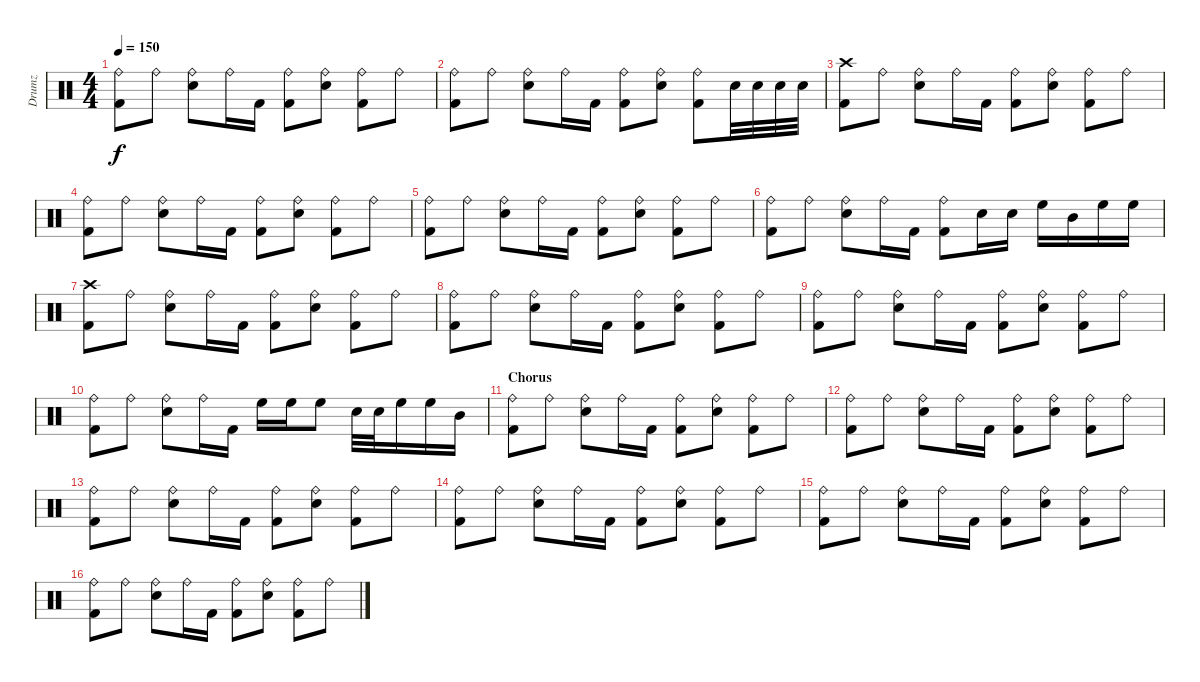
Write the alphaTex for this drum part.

\track ("Drumz" "Drumz") {instrument percussion}
\staff {score}
\articulation defaults
\ts (4 4)
\tempo 150
\clef neutral
\ks c
("Ride (bell)" "Kick (hit) 2").8{dy f} "Ride (bell)".8 ("Ride (bell)" "Snare (hit) 2").8 "Ride (bell)".16 "Kick (hit) 2".16 ("Ride (bell)" "Kick (hit) 2").8 ("Ride (bell)" "Snare (hit) 2").8 ("Ride (bell)" "Kick (hit) 2").8 "Ride (bell)".8 |
("Ride (bell)" "Kick (hit) 2").8 "Ride (bell)".8 ("Ride (bell)" "Snare (hit) 2").8 "Ride (bell)".16 "Kick (hit) 2".16 ("Ride (bell)" "Kick (hit) 2").8 ("Ride (bell)" "Snare (hit) 2").8 ("Ride (bell)" "Kick (hit) 2").8 "Snare (hit) 2".32 "Snare (hit) 2".32 "Snare (hit) 2".32 "Snare (hit) 2".32 |
("Crash high (hit)" "Kick (hit) 2").8 "Ride (bell)".8 ("Ride (bell)" "Snare (hit) 2").8 "Ride (bell)".16 "Kick (hit) 2".16 ("Ride (bell)" "Kick (hit) 2").8 ("Ride (bell)" "Snare (hit) 2").8 ("Ride (bell)" "Kick (hit) 2").8 "Ride (bell)".8 |
("Ride (bell)" "Kick (hit) 2").8 "Ride (bell)".8 ("Ride (bell)" "Snare (hit) 2").8 "Ride (bell)".16 "Kick (hit) 2".16 ("Ride (bell)" "Kick (hit) 2").8 ("Ride (bell)" "Snare (hit) 2").8 ("Ride (bell)" "Kick (hit) 2").8 "Ride (bell)".8 |
("Ride (bell)" "Kick (hit) 2").8 "Ride (bell)".8 ("Ride (bell)" "Snare (hit) 2").8 "Ride (bell)".16 "Kick (hit) 2".16 ("Ride (bell)" "Kick (hit) 2").8 ("Ride (bell)" "Snare (hit) 2").8 ("Ride (bell)" "Kick (hit) 2").8 "Ride (bell)".8 |
("Ride (bell)" "Kick (hit) 2").8 "Ride (bell)".8 ("Ride (bell)" "Snare (hit) 2").8 "Ride (bell)".16 "Kick (hit) 2".16 ("Ride (bell)" "Kick (hit) 2").8 "Snare (hit) 2".16 "Snare (hit) 2".16 "High Floor Tom (hit)".16 "Mid Tom (hit)".16 "High Floor Tom (hit)".16 "High Floor Tom (hit)".16 |
("Crash high (hit)" "Kick (hit) 2").8 "Ride (bell)".8 ("Ride (bell)" "Snare (hit) 2").8 "Ride (bell)".16 "Kick (hit) 2".16 ("Ride (bell)" "Kick (hit) 2").8 ("Ride (bell)" "Snare (hit) 2").8 ("Ride (bell)" "Kick (hit) 2").8 "Ride (bell)".8 |
("Ride (bell)" "Kick (hit) 2").8 "Ride (bell)".8 ("Ride (bell)" "Snare (hit) 2").8 "Ride (bell)".16 "Kick (hit) 2".16 ("Ride (bell)" "Kick (hit) 2").8 ("Ride (bell)" "Snare (hit) 2").8 ("Ride (bell)" "Kick (hit) 2").8 "Ride (bell)".8 |
("Ride (bell)" "Kick (hit) 2").8 "Ride (bell)".8 ("Ride (bell)" "Snare (hit) 2").8 "Ride (bell)".16 "Kick (hit) 2".16 ("Ride (bell)" "Kick (hit) 2").8 ("Ride (bell)" "Snare (hit) 2").8 ("Ride (bell)" "Kick (hit) 2").8 "Ride (bell)".8 |
("Ride (bell)" "Kick (hit) 2").8 "Ride (bell)".8 ("Ride (bell)" "Snare (hit) 2").8 "Ride (bell)".16 "Kick (hit) 2".16 "High Floor Tom (hit)".16 "High Floor Tom (hit)".16 "High Floor Tom (hit)".8 "Snare (hit) 2".32 "Snare (hit) 2".32 "High Floor Tom (hit)".16 "High Floor Tom (hit)".16 "Mid Tom (hit)".16 |
\section ("" "Chorus")
("Ride (bell)" "Kick (hit) 2").8 "Ride (bell)".8 ("Ride (bell)" "Snare (hit) 2").8 "Ride (bell)".16 "Kick (hit) 2".16 ("Ride (bell)" "Kick (hit) 2").8 ("Ride (bell)" "Snare (hit) 2").8 ("Ride (bell)" "Kick (hit) 2").8 "Ride (bell)".8 |
("Ride (bell)" "Kick (hit) 2").8 "Ride (bell)".8 ("Ride (bell)" "Snare (hit) 2").8 "Ride (bell)".16 "Kick (hit) 2".16 ("Ride (bell)" "Kick (hit) 2").8 ("Ride (bell)" "Snare (hit) 2").8 ("Ride (bell)" "Kick (hit) 2").8 "Ride (bell)".8 |
("Ride (bell)" "Kick (hit) 2").8 "Ride (bell)".8 ("Ride (bell)" "Snare (hit) 2").8 "Ride (bell)".16 "Kick (hit) 2".16 ("Ride (bell)" "Kick (hit) 2").8 ("Ride (bell)" "Snare (hit) 2").8 ("Ride (bell)" "Kick (hit) 2").8 "Ride (bell)".8 |
("Ride (bell)" "Kick (hit) 2").8 "Ride (bell)".8 ("Ride (bell)" "Snare (hit) 2").8 "Ride (bell)".16 "Kick (hit) 2".16 ("Ride (bell)" "Kick (hit) 2").8 ("Ride (bell)" "Snare (hit) 2").8 ("Ride (bell)" "Kick (hit) 2").8 "Ride (bell)".8 |
("Ride (bell)" "Kick (hit) 2").8 "Ride (bell)".8 ("Ride (bell)" "Snare (hit) 2").8 "Ride (bell)".16 "Kick (hit) 2".16 ("Ride (bell)" "Kick (hit) 2").8 ("Ride (bell)" "Snare (hit) 2").8 ("Ride (bell)" "Kick (hit) 2").8 "Ride (bell)".8 |
("Ride (bell)" "Kick (hit) 2").8 "Ride (bell)".8 ("Ride (bell)" "Snare (hit) 2").8 "Ride (bell)".16 "Kick (hit) 2".16 ("Ride (bell)" "Kick (hit) 2").8 ("Ride (bell)" "Snare (hit) 2").8 ("Ride (bell)" "Kick (hit) 2").8 "Ride (bell)".8
